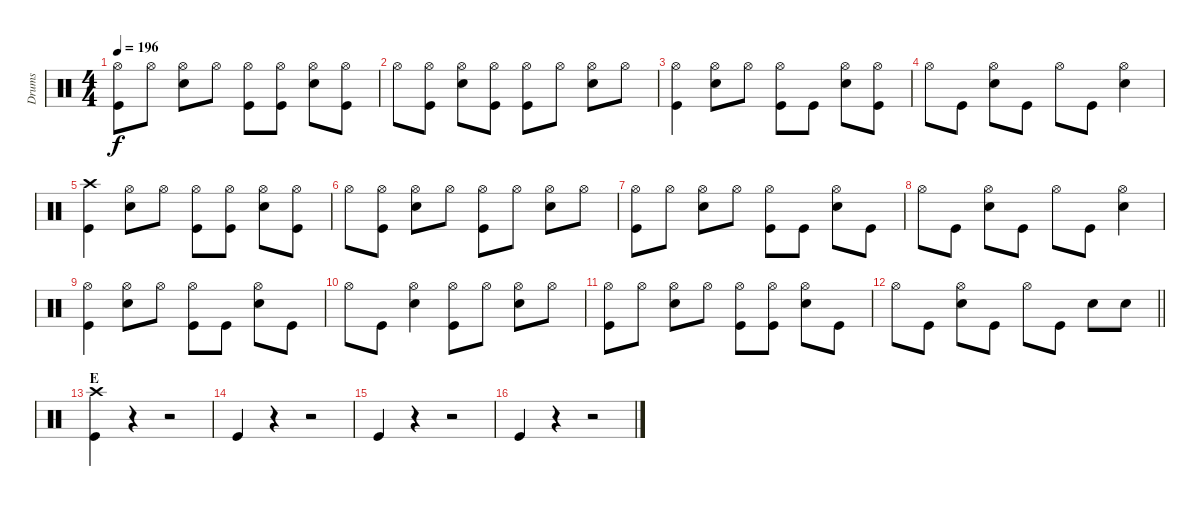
\track ("Drums" "Drums") {instrument percussion}
\staff {score}
\articulation defaults
\ts (4 4)
\tempo 196
\clef neutral
\ks c
("Hi-Hat (open)" "Kick (hit)").8{dy f} "Hi-Hat (open)".8 ("Hi-Hat (open)" "Electric Snare (hit)").8 "Hi-Hat (open)".8 ("Hi-Hat (open)" "Kick (hit)").8 ("Hi-Hat (open)" "Kick (hit)").8 ("Hi-Hat (open)" "Electric Snare (hit)").8 ("Hi-Hat (open)" "Kick (hit)").8 |
"Hi-Hat (open)".8 ("Hi-Hat (open)" "Kick (hit)").8 ("Hi-Hat (open)" "Electric Snare (hit)").8 ("Hi-Hat (open)" "Kick (hit)").8 ("Hi-Hat (open)" "Kick (hit)").8 "Hi-Hat (open)".8 ("Hi-Hat (open)" "Electric Snare (hit)").8 "Hi-Hat (open)".8 |
("Hi-Hat (open)" "Kick (hit)").4 ("Hi-Hat (open)" "Electric Snare (hit)").8 "Hi-Hat (open)".8 ("Hi-Hat (open)" "Kick (hit)").8 "Kick (hit)".8 ("Hi-Hat (open)" "Electric Snare (hit)").8 ("Hi-Hat (open)" "Kick (hit)").8 |
"Hi-Hat (open)".8 "Kick (hit)".8 ("Hi-Hat (open)" "Electric Snare (hit)").8 "Kick (hit)".8 "Hi-Hat (open)".8 "Kick (hit)".8 ("Hi-Hat (open)" "Electric Snare (hit)").4 |
("Crash high (hit)" "Kick (hit)").4 ("Hi-Hat (open)" "Electric Snare (hit)").8 "Hi-Hat (open)".8 ("Hi-Hat (open)" "Kick (hit)").8 ("Hi-Hat (open)" "Kick (hit)").8 ("Hi-Hat (open)" "Electric Snare (hit)").8 ("Hi-Hat (open)" "Kick (hit)").8 |
"Hi-Hat (open)".8 ("Hi-Hat (open)" "Kick (hit)").8 ("Hi-Hat (open)" "Electric Snare (hit)").8 "Hi-Hat (open)".8 ("Hi-Hat (open)" "Kick (hit)").8 "Hi-Hat (open)".8 ("Hi-Hat (open)" "Electric Snare (hit)").8 "Hi-Hat (open)".8 |
("Hi-Hat (open)" "Kick (hit)").8 "Hi-Hat (open)".8 ("Hi-Hat (open)" "Electric Snare (hit)").8 "Hi-Hat (open)".8 ("Hi-Hat (open)" "Kick (hit)").8 "Kick (hit)".8 ("Hi-Hat (open)" "Electric Snare (hit)").8 "Kick (hit)".8 |
"Hi-Hat (open)".8 "Kick (hit)".8 ("Hi-Hat (open)" "Electric Snare (hit)").8 "Kick (hit)".8 "Hi-Hat (open)".8 "Kick (hit)".8 ("Hi-Hat (open)" "Electric Snare (hit)").4 |
("Hi-Hat (open)" "Kick (hit)").4 ("Hi-Hat (open)" "Electric Snare (hit)").8 "Hi-Hat (open)".8 ("Hi-Hat (open)" "Kick (hit)").8 "Kick (hit)".8 ("Hi-Hat (open)" "Electric Snare (hit)").8 "Kick (hit)".8 |
"Hi-Hat (open)".8 "Kick (hit)".8 ("Hi-Hat (open)" "Electric Snare (hit)").4 ("Hi-Hat (open)" "Kick (hit)").8 "Hi-Hat (open)".8 ("Hi-Hat (open)" "Electric Snare (hit)").8 "Hi-Hat (open)".8 |
("Hi-Hat (open)" "Kick (hit)").8 "Hi-Hat (open)".8 ("Hi-Hat (open)" "Electric Snare (hit)").8 "Hi-Hat (open)".8 ("Hi-Hat (open)" "Kick (hit)").8 ("Hi-Hat (open)" "Kick (hit)").8 ("Hi-Hat (open)" "Electric Snare (hit)").8 "Kick (hit)".8 |
\barLineRight lightlight "Hi-Hat (open)".8 "Kick (hit)".8
("Hi-Hat (open)" "Electric Snare (hit)").8 "Kick (hit)".8 "Hi-Hat (open)".8 "Kick (hit)".8 "Electric Snare (hit)".8 "Electric Snare (hit)".8 |
\section ("" "E")
("Crash high (hit)" "Kick (hit)").4 r.4 r.2 |
"Kick (hit)".4 r.4 r.2 |
"Kick (hit)".4 r.4 r.2 |
"Kick (hit)".4 r.4 r.2
